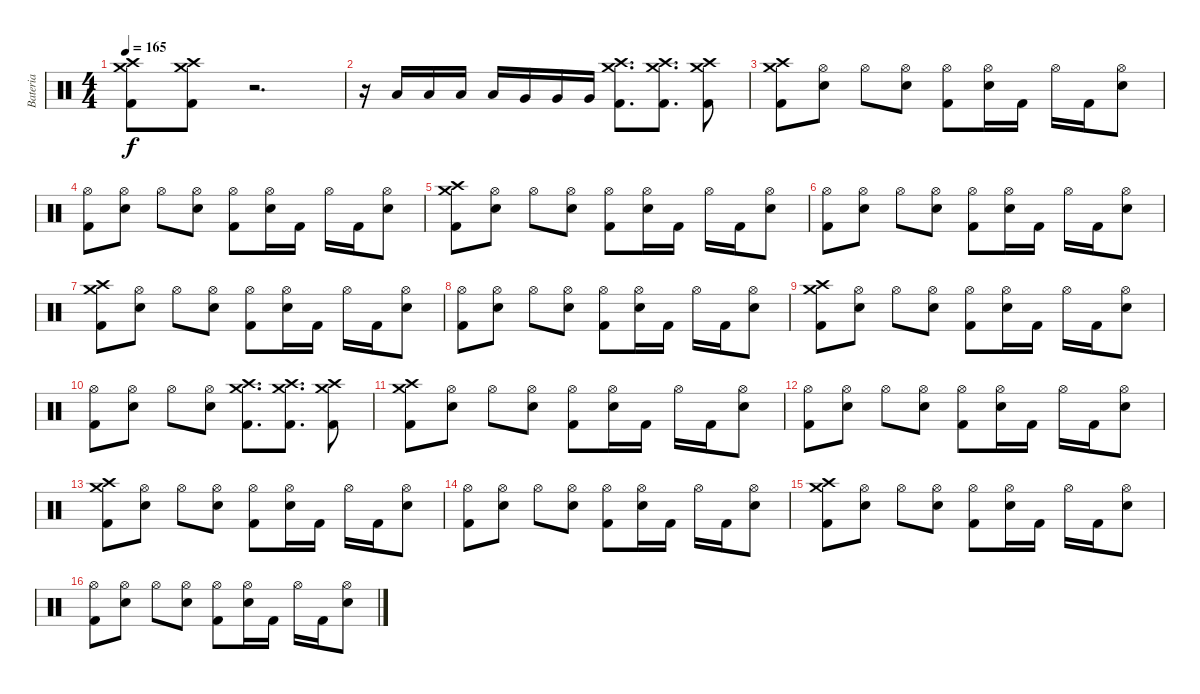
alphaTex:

\track ("Bateria" "Bateria") {instrument percussion}
\staff {score}
\articulation defaults
\ts (4 4)
\tempo 165
\clef neutral
\ks c
("Kick (hit) 2" "Crash medium (hit)" "Crash high (hit)").8{dy f} ("Kick (hit) 2" "Crash medium (hit)" "Crash high (hit)").8 r.2{d} |
r.16 "Low Tom (hit)".16 "Low Tom (hit)".16 "Low Tom (hit)".16 "Low Tom (hit)".16 "Very Low Tom (hit)".16 "Very Low Tom (hit)".16 "Very Low Tom (hit)".16 ("Kick (hit) 2" "Crash medium (hit)" "Crash high (hit)").8{d} ("Kick (hit) 2" "Crash medium (hit)" "Crash high (hit)").8{d} ("Kick (hit) 2" "Crash medium (hit)" "Crash high (hit)").8 |
("Kick (hit) 2" "Crash medium (hit)" "Crash high (hit)").8 ("Hi-Hat (open)" "Electric Snare (hit)").8 "Hi-Hat (open)".8 ("Hi-Hat (open)" "Electric Snare (hit)").8 ("Kick (hit) 2" "Hi-Hat (open)").8 ("Hi-Hat (open)" "Electric Snare (hit)").16 "Kick (hit) 2".16 "Hi-Hat (open)".16 "Kick (hit) 2".16 ("Hi-Hat (open)" "Electric Snare (hit)").8 |
("Kick (hit) 2" "Hi-Hat (open)").8 ("Hi-Hat (open)" "Electric Snare (hit)").8 "Hi-Hat (open)".8 ("Hi-Hat (open)" "Electric Snare (hit)").8 ("Kick (hit) 2" "Hi-Hat (open)").8 ("Hi-Hat (open)" "Electric Snare (hit)").16 "Kick (hit) 2".16 "Hi-Hat (open)".16 "Kick (hit) 2".16 ("Hi-Hat (open)" "Electric Snare (hit)").8 |
("Kick (hit) 2" "Crash medium (hit)" "Crash high (hit)").8 ("Hi-Hat (open)" "Electric Snare (hit)").8 "Hi-Hat (open)".8 ("Hi-Hat (open)" "Electric Snare (hit)").8 ("Kick (hit) 2" "Hi-Hat (open)").8 ("Hi-Hat (open)" "Electric Snare (hit)").16 "Kick (hit) 2".16 "Hi-Hat (open)".16 "Kick (hit) 2".16 ("Hi-Hat (open)" "Electric Snare (hit)").8 |
("Kick (hit) 2" "Hi-Hat (open)").8 ("Hi-Hat (open)" "Electric Snare (hit)").8 "Hi-Hat (open)".8 ("Hi-Hat (open)" "Electric Snare (hit)").8 ("Kick (hit) 2" "Hi-Hat (open)").8 ("Hi-Hat (open)" "Electric Snare (hit)").16 "Kick (hit) 2".16 "Hi-Hat (open)".16 "Kick (hit) 2".16 ("Hi-Hat (open)" "Electric Snare (hit)").8 |
("Kick (hit) 2" "Crash medium (hit)" "Crash high (hit)").8 ("Hi-Hat (open)" "Electric Snare (hit)").8 "Hi-Hat (open)".8 ("Hi-Hat (open)" "Electric Snare (hit)").8 ("Kick (hit) 2" "Hi-Hat (open)").8 ("Hi-Hat (open)" "Electric Snare (hit)").16 "Kick (hit) 2".16 "Hi-Hat (open)".16 "Kick (hit) 2".16 ("Hi-Hat (open)" "Electric Snare (hit)").8 |
("Kick (hit) 2" "Hi-Hat (open)").8 ("Hi-Hat (open)" "Electric Snare (hit)").8 "Hi-Hat (open)".8 ("Hi-Hat (open)" "Electric Snare (hit)").8 ("Kick (hit) 2" "Hi-Hat (open)").8 ("Hi-Hat (open)" "Electric Snare (hit)").16 "Kick (hit) 2".16 "Hi-Hat (open)".16 "Kick (hit) 2".16 ("Hi-Hat (open)" "Electric Snare (hit)").8 |
("Kick (hit) 2" "Crash medium (hit)" "Crash high (hit)").8 ("Hi-Hat (open)" "Electric Snare (hit)").8 "Hi-Hat (open)".8 ("Hi-Hat (open)" "Electric Snare (hit)").8 ("Kick (hit) 2" "Hi-Hat (open)").8 ("Hi-Hat (open)" "Electric Snare (hit)").16 "Kick (hit) 2".16 "Hi-Hat (open)".16 "Kick (hit) 2".16 ("Hi-Hat (open)" "Electric Snare (hit)").8 |
("Kick (hit) 2" "Hi-Hat (open)").8 ("Hi-Hat (open)" "Electric Snare (hit)").8 "Hi-Hat (open)".8 ("Hi-Hat (open)" "Electric Snare (hit)").8 ("Kick (hit) 2" "Crash medium (hit)" "Crash high (hit)").8{d} ("Kick (hit) 2" "Crash medium (hit)" "Crash high (hit)").8{d} ("Kick (hit) 2" "Crash medium (hit)" "Crash high (hit)").8 |
("Kick (hit) 2" "Crash medium (hit)" "Crash high (hit)").8 ("Hi-Hat (open)" "Electric Snare (hit)").8 "Hi-Hat (open)".8 ("Hi-Hat (open)" "Electric Snare (hit)").8 ("Kick (hit) 2" "Hi-Hat (open)").8 ("Hi-Hat (open)" "Electric Snare (hit)").16 "Kick (hit) 2".16 "Hi-Hat (open)".16 "Kick (hit) 2".16 ("Hi-Hat (open)" "Electric Snare (hit)").8 |
("Kick (hit) 2" "Hi-Hat (open)").8 ("Hi-Hat (open)" "Electric Snare (hit)").8 "Hi-Hat (open)".8 ("Hi-Hat (open)" "Electric Snare (hit)").8 ("Kick (hit) 2" "Hi-Hat (open)").8 ("Hi-Hat (open)" "Electric Snare (hit)").16 "Kick (hit) 2".16 "Hi-Hat (open)".16 "Kick (hit) 2".16 ("Hi-Hat (open)" "Electric Snare (hit)").8 |
("Kick (hit) 2" "Crash medium (hit)" "Crash high (hit)").8 ("Hi-Hat (open)" "Electric Snare (hit)").8 "Hi-Hat (open)".8 ("Hi-Hat (open)" "Electric Snare (hit)").8 ("Kick (hit) 2" "Hi-Hat (open)").8 ("Hi-Hat (open)" "Electric Snare (hit)").16 "Kick (hit) 2".16 "Hi-Hat (open)".16 "Kick (hit) 2".16 ("Hi-Hat (open)" "Electric Snare (hit)").8 |
("Kick (hit) 2" "Hi-Hat (open)").8 ("Hi-Hat (open)" "Electric Snare (hit)").8 "Hi-Hat (open)".8 ("Hi-Hat (open)" "Electric Snare (hit)").8 ("Kick (hit) 2" "Hi-Hat (open)").8 ("Hi-Hat (open)" "Electric Snare (hit)").16 "Kick (hit) 2".16 "Hi-Hat (open)".16 "Kick (hit) 2".16 ("Hi-Hat (open)" "Electric Snare (hit)").8 |
("Kick (hit) 2" "Crash medium (hit)" "Crash high (hit)").8 ("Hi-Hat (open)" "Electric Snare (hit)").8 "Hi-Hat (open)".8 ("Hi-Hat (open)" "Electric Snare (hit)").8 ("Kick (hit) 2" "Hi-Hat (open)").8 ("Hi-Hat (open)" "Electric Snare (hit)").16 "Kick (hit) 2".16 "Hi-Hat (open)".16 "Kick (hit) 2".16 ("Hi-Hat (open)" "Electric Snare (hit)").8 |
("Kick (hit) 2" "Hi-Hat (open)").8 ("Hi-Hat (open)" "Electric Snare (hit)").8 "Hi-Hat (open)".8 ("Hi-Hat (open)" "Electric Snare (hit)").8 ("Kick (hit) 2" "Hi-Hat (open)").8 ("Hi-Hat (open)" "Electric Snare (hit)").16 "Kick (hit) 2".16 "Hi-Hat (open)".16 "Kick (hit) 2".16 ("Hi-Hat (open)" "Electric Snare (hit)").8
